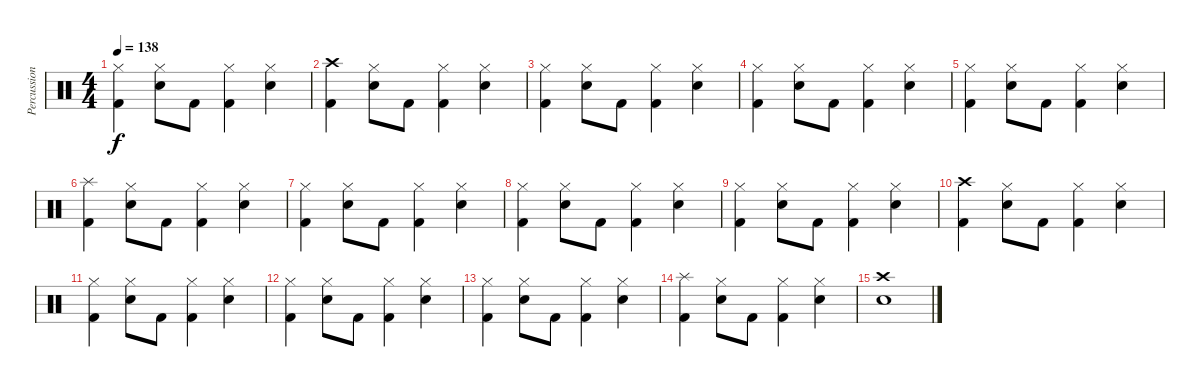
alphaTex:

\track ("Percussions" "Percussion") {instrument percussion}
\staff {score}
\articulation defaults
\ts (4 4)
\tempo 138
\clef neutral
\ks c
("Hi-Hat (closed)" "Kick (hit) 2").4{dy f} ("Hi-Hat (closed)" "Snare (hit) 2").8 "Kick (hit) 2".8 ("Hi-Hat (closed)" "Kick (hit) 2").4 ("Hi-Hat (closed)" "Snare (hit) 2").4 |
("Crash high (hit)" "Kick (hit) 2").4 ("Hi-Hat (closed)" "Snare (hit) 2").8 "Kick (hit) 2".8 ("Hi-Hat (closed)" "Kick (hit) 2").4 ("Hi-Hat (closed)" "Snare (hit) 2").4 |
("Hi-Hat (closed)" "Kick (hit) 2").4 ("Hi-Hat (closed)" "Snare (hit) 2").8 "Kick (hit) 2".8 ("Hi-Hat (closed)" "Kick (hit) 2").4 ("Hi-Hat (closed)" "Snare (hit) 2").4 |
("Hi-Hat (closed)" "Kick (hit) 2").4 ("Hi-Hat (closed)" "Snare (hit) 2").8 "Kick (hit) 2".8 ("Hi-Hat (closed)" "Kick (hit) 2").4 ("Hi-Hat (closed)" "Snare (hit) 2").4 |
("Hi-Hat (closed)" "Kick (hit) 2").4 ("Hi-Hat (closed)" "Snare (hit) 2").8 "Kick (hit) 2".8 ("Hi-Hat (closed)" "Kick (hit) 2").4 ("Hi-Hat (closed)" "Snare (hit) 2").4 |
("Splash (hit)" "Kick (hit) 2").4 ("Hi-Hat (closed)" "Snare (hit) 2").8 "Kick (hit) 2".8 ("Hi-Hat (closed)" "Kick (hit) 2").4 ("Hi-Hat (closed)" "Snare (hit) 2").4 |
("Hi-Hat (closed)" "Kick (hit) 2").4 ("Hi-Hat (closed)" "Snare (hit) 2").8 "Kick (hit) 2".8 ("Hi-Hat (closed)" "Kick (hit) 2").4 ("Hi-Hat (closed)" "Snare (hit) 2").4 |
("Hi-Hat (closed)" "Kick (hit) 2").4 ("Hi-Hat (closed)" "Snare (hit) 2").8 "Kick (hit) 2".8 ("Hi-Hat (closed)" "Kick (hit) 2").4 ("Hi-Hat (closed)" "Snare (hit) 2").4 |
("Hi-Hat (closed)" "Kick (hit) 2").4 ("Hi-Hat (closed)" "Snare (hit) 2").8 "Kick (hit) 2".8 ("Hi-Hat (closed)" "Kick (hit) 2").4 ("Hi-Hat (closed)" "Snare (hit) 2").4 |
("Crash high (hit)" "Kick (hit) 2").4 ("Hi-Hat (closed)" "Snare (hit) 2").8 "Kick (hit) 2".8 ("Hi-Hat (closed)" "Kick (hit) 2").4 ("Hi-Hat (closed)" "Snare (hit) 2").4 |
("Hi-Hat (closed)" "Kick (hit) 2").4 ("Hi-Hat (closed)" "Snare (hit) 2").8 "Kick (hit) 2".8 ("Hi-Hat (closed)" "Kick (hit) 2").4 ("Hi-Hat (closed)" "Snare (hit) 2").4 |
("Hi-Hat (closed)" "Kick (hit) 2").4 ("Hi-Hat (closed)" "Snare (hit) 2").8 "Kick (hit) 2".8 ("Hi-Hat (closed)" "Kick (hit) 2").4 ("Hi-Hat (closed)" "Snare (hit) 2").4 |
("Hi-Hat (closed)" "Kick (hit) 2").4 ("Hi-Hat (closed)" "Snare (hit) 2").8 "Kick (hit) 2".8 ("Hi-Hat (closed)" "Kick (hit) 2").4 ("Hi-Hat (closed)" "Snare (hit) 2").4 |
("Splash (hit)" "Kick (hit) 2").4 ("Hi-Hat (closed)" "Snare (hit) 2").8 "Kick (hit) 2".8 ("Hi-Hat (closed)" "Kick (hit) 2").4 ("Hi-Hat (closed)" "Snare (hit) 2").4 |
("Crash high (hit)" "Snare (hit) 2").1
